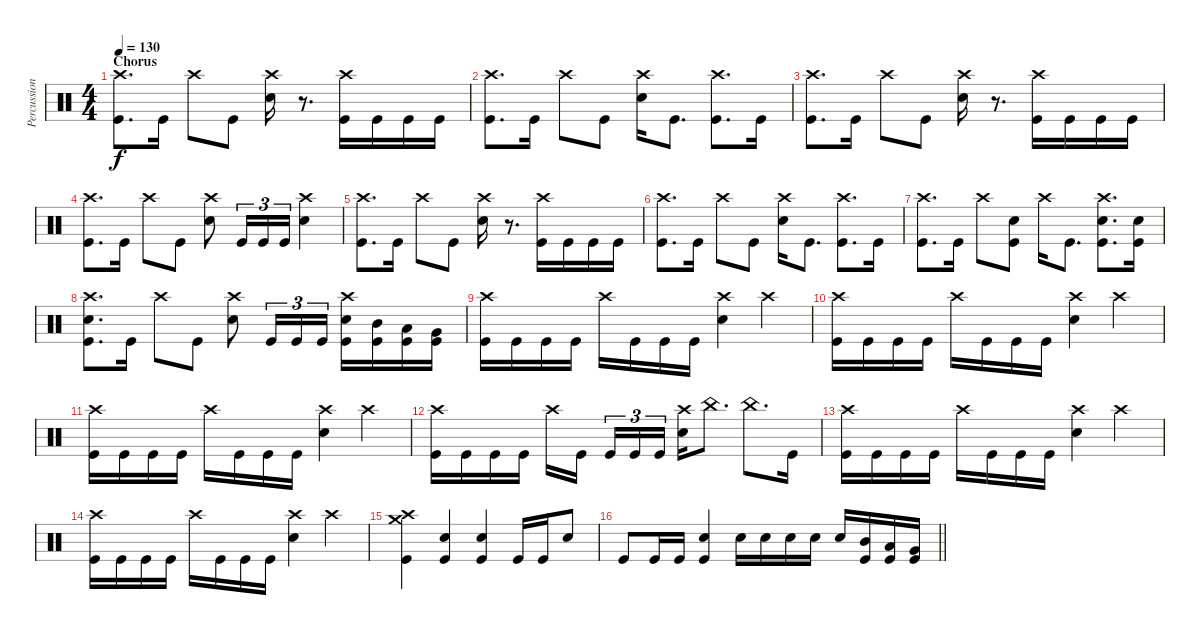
\track ("Percussion" "Percussion") {instrument percussion}
\staff {score}
\articulation defaults
\ts (4 4)
\section ("" "Chorus")
\tempo 130
\clef neutral
\ks c
("Crash high (hit)" "Kick (hit)").8{d dy f} "Kick (hit)".16 "Crash high (hit)".8 "Kick (hit)".8 ("Crash high (hit)" "Snare (hit) 2").16 r.8{d} ("Crash high (hit)" "Kick (hit)").16 "Kick (hit)".16 "Kick (hit)".16 "Kick (hit)".16 |
("Crash high (hit)" "Kick (hit)").8{d} "Kick (hit)".16 "Crash high (hit)".8 "Kick (hit)".8 ("Crash high (hit)" "Snare (hit) 2").16 "Kick (hit)".8{d} ("Crash high (hit)" "Kick (hit)").8{d} "Kick (hit)".16 |
("Crash high (hit)" "Kick (hit)").8{d} "Kick (hit)".16 "Crash high (hit)".8 "Kick (hit)".8 ("Crash high (hit)" "Snare (hit) 2").16 r.8{d} ("Crash high (hit)" "Kick (hit)").16 "Kick (hit)".16 "Kick (hit)".16 "Kick (hit)".16 |
("Crash high (hit)" "Kick (hit)").8{d} "Kick (hit)".16 "Crash high (hit)".8 "Kick (hit)".8 ("Crash high (hit)" "Snare (hit) 2").8 "Kick (hit)".16{tu (3 2)} "Kick (hit)".16{tu (3 2)} "Kick (hit)".16{tu (3 2)} ("Crash high (hit)" "Snare (hit) 2").4 |
("Crash high (hit)" "Kick (hit)").8{d} "Kick (hit)".16 "Crash high (hit)".8 "Kick (hit)".8 ("Crash high (hit)" "Snare (hit) 2").16 r.8{d} ("Crash high (hit)" "Kick (hit)").16 "Kick (hit)".16 "Kick (hit)".16 "Kick (hit)".16 |
("Crash high (hit)" "Kick (hit)").8{d} "Kick (hit)".16 "Crash high (hit)".8 "Kick (hit)".8 ("Crash high (hit)" "Snare (hit) 2").16 "Kick (hit)".8{d} ("Crash high (hit)" "Kick (hit)").8{d} "Kick (hit)".16 |
("Crash high (hit)" "Kick (hit)").8{d} "Kick (hit)".16 "Crash high (hit)".8 ("Snare (hit) 2" "Kick (hit)").8 "Crash high (hit)".16 "Kick (hit)".8{d} ("Crash high (hit)" "Snare (hit) 2" "Kick (hit)").8{d} ("Snare (hit) 2" "Kick (hit)").16 |
("Crash high (hit)" "Snare (hit) 2" "Kick (hit)").8{d} "Kick (hit)".16 "Crash high (hit)".8 "Kick (hit)".8 ("Crash high (hit)" "Snare (hit) 2").8 "Kick (hit)".16{tu (3 2)} "Kick (hit)".16{tu (3 2)} "Kick (hit)".16{tu (3 2)} ("Crash high (hit)" "Snare (hit) 2" "Kick (hit)").16 ("Mid Tom (hit)" "Kick (hit)").16 ("Low Tom (hit)" "Kick (hit)").16 ("Very Low Tom (hit)" "Kick (hit)").16 |
("Crash high (hit)" "Kick (hit)").16 "Kick (hit)".16 "Kick (hit)".16 "Kick (hit)".16 "Crash high (hit)".16 "Kick (hit)".16 "Kick (hit)".16 "Kick (hit)".16 ("Crash high (hit)" "Snare (hit) 2").4 "Crash high (hit)".4 |
("Crash high (hit)" "Kick (hit)").16 "Kick (hit)".16 "Kick (hit)".16 "Kick (hit)".16 "Crash high (hit)".16 "Kick (hit)".16 "Kick (hit)".16 "Kick (hit)".16 ("Crash high (hit)" "Snare (hit) 2").4 "Crash high (hit)".4 |
("Crash high (hit)" "Kick (hit)").16 "Kick (hit)".16 "Kick (hit)".16 "Kick (hit)".16 "Crash high (hit)".16 "Kick (hit)".16 "Kick (hit)".16 "Kick (hit)".16 ("Crash high (hit)" "Snare (hit) 2").4 "Crash high (hit)".4 |
("Crash high (hit)" "Kick (hit)").16 "Kick (hit)".16 "Kick (hit)".16 "Kick (hit)".16 "Crash high (hit)".16 "Kick (hit)".16{beam splitsecondary} "Kick (hit)".16{tu (3 2)} "Kick (hit)".16{tu (3 2)} "Kick (hit)".16{tu (3 2)} ("Crash high (hit)" "Snare (hit) 2").16 "China (hit)".8{d} "China (hit)".8{d} "Kick (hit)".16 |
("Crash high (hit)" "Kick (hit)").16 "Kick (hit)".16 "Kick (hit)".16 "Kick (hit)".16 "Crash high (hit)".16 "Kick (hit)".16 "Kick (hit)".16 "Kick (hit)".16 ("Crash high (hit)" "Snare (hit) 2").4 "Crash high (hit)".4 |
("Crash high (hit)" "Kick (hit)").16 "Kick (hit)".16 "Kick (hit)".16 "Kick (hit)".16 "Crash high (hit)".16 "Kick (hit)".16 "Kick (hit)".16 "Kick (hit)".16 ("Crash high (hit)" "Snare (hit) 2").4 "Crash high (hit)".4 |
("Crash medium (hit)" "Crash high (hit)" "Kick (hit)").4 ("Snare (hit) 2" "Kick (hit)").4 ("Snare (hit) 2" "Kick (hit)").4 "Kick (hit)".16 "Kick (hit)".16 "Snare (hit) 2".8 |
\barLineRight lightlight "Kick (hit)".8 "Kick (hit)".16 "Kick (hit)".16
("Snare (hit) 2" "Kick (hit)").4 "Snare (hit) 2".16 "Snare (hit) 2".16 "Snare (hit) 2".16 "Snare (hit) 2".16 "Snare (hit) 2".16 ("Mid Tom (hit)" "Kick (hit)").16 ("Low Tom (hit)" "Kick (hit)").16 ("Very Low Tom (hit)" "Kick (hit)").16
